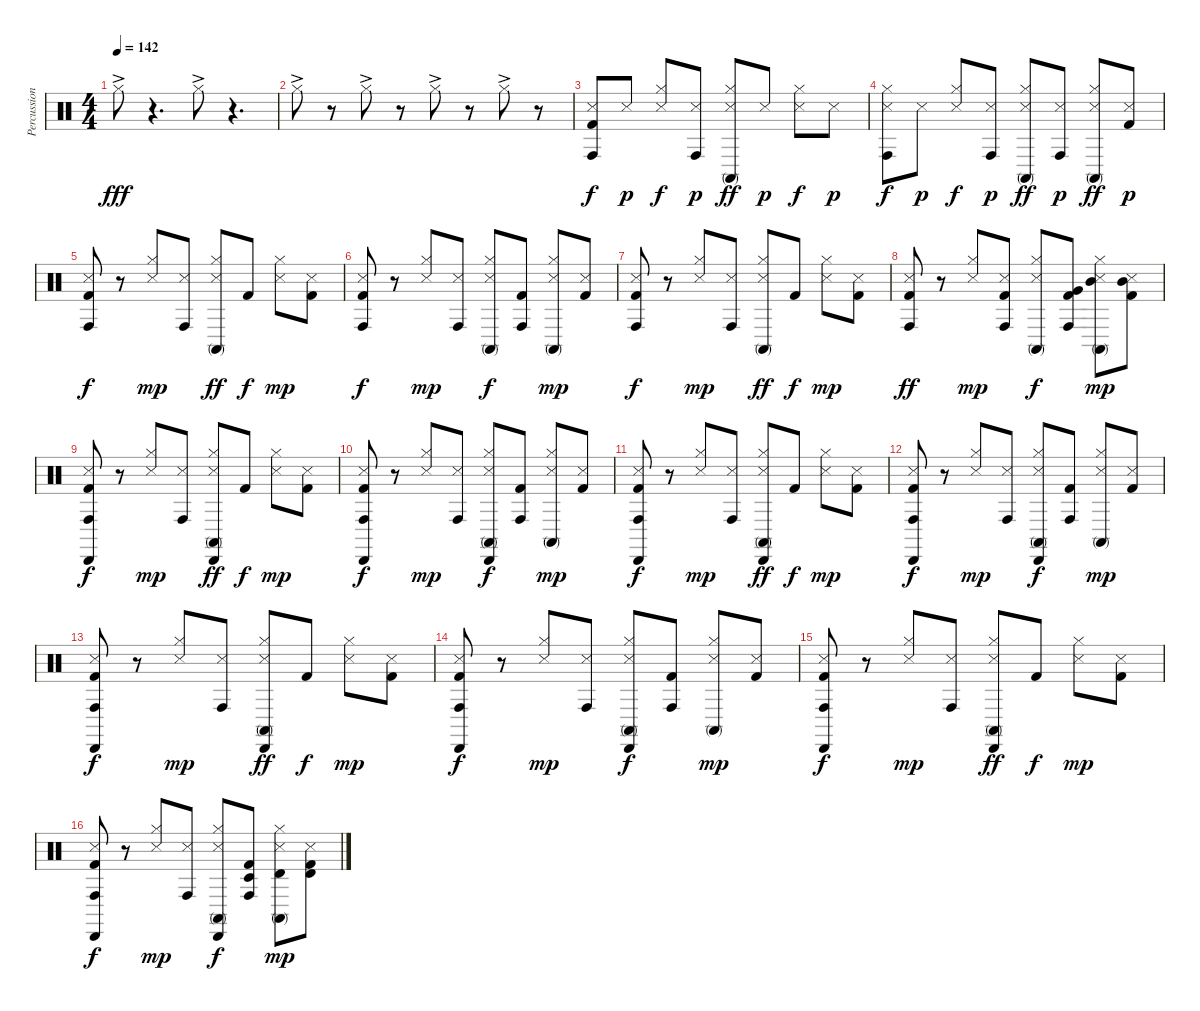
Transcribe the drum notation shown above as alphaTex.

\track ("Percussion" "Percussion") {instrument percussion}
\staff {score}
\articulation defaults
\ts (4 4)
\tempo 142
\clef neutral
\ks c "Hi-Hat (closed)"{ac}.8{dy fff}
r.4{d} "Hi-Hat (closed)"{ac}.8 r.4{d} |
"Hi-Hat (closed)"{ac}.8 r.8 "Hi-Hat (closed)"{ac}.8 r.8 "Hi-Hat (closed)"{ac}.8 r.8 "Hi-Hat (closed)"{ac}.8 r.8 |
("Conga high (hit)" "Snare (side stick) 3" "Kick (hit) 2").8{dy f} "Snare (side stick) 3".8{dy p} ("Hi-Hat (closed)" "Snare (side stick) 3").8{dy f} ("Conga high (hit)" "Snare (side stick) 3").8{dy p} ("Conga high (mute)" "Hi-Hat (closed)" "Snare (side stick) 3").8{dy ff} "Snare (side stick) 3".8{dy p} ("Hi-Hat (closed)" "Snare (side stick) 3").8{dy f} "Snare (side stick) 3".8{dy p} |
("Conga high (hit)" "Hi-Hat (closed)" "Snare (side stick) 3").8{dy f} "Snare (side stick) 3".8{dy p} ("Hi-Hat (closed)" "Snare (side stick) 3").8{dy f} ("Conga high (hit)" "Snare (side stick) 3").8{dy p} ("Conga high (mute)" "Hi-Hat (closed)" "Snare (side stick) 3").8{dy ff} ("Conga high (hit)" "Snare (side stick) 3").8{dy p} ("Conga high (mute)" "Hi-Hat (closed)" "Snare (side stick) 3").8{dy ff} ("Snare (side stick) 3" "Kick (hit) 2").8{dy p} |
("Conga high (hit)" "Snare (side stick) 3" "Kick (hit) 2").8{dy f} r.8 ("Hi-Hat (closed)" "Snare (side stick) 3").8{dy mp} ("Conga high (hit)" "Snare (side stick) 3").8 ("Conga high (mute)" "Hi-Hat (closed)" "Snare (side stick) 3").8{dy ff} "Kick (hit) 2".8{dy f} ("Hi-Hat (closed)" "Snare (side stick) 3").8{dy mp} ("Snare (side stick) 3" "Kick (hit) 2").8 |
("Conga high (hit)" "Snare (side stick) 3" "Kick (hit) 2").8{dy f} r.8 ("Hi-Hat (closed)" "Snare (side stick) 3").8{dy mp} ("Conga high (hit)" "Snare (side stick) 3").8 ("Conga high (mute)" "Hi-Hat (closed)" "Snare (side stick) 3").8{dy f} ("Conga high (hit)" "Kick (hit) 2").8 ("Conga high (mute)" "Hi-Hat (closed)" "Snare (side stick) 3").8{dy mp} ("Snare (side stick) 3" "Kick (hit) 2").8 |
("Conga high (hit)" "Snare (side stick) 3" "Kick (hit) 2").8{dy f} r.8 ("Hi-Hat (closed)" "Snare (side stick) 3").8{dy mp} ("Conga high (hit)" "Snare (side stick) 3").8 ("Conga high (mute)" "Hi-Hat (closed)" "Snare (side stick) 3").8{dy ff} "Kick (hit) 2".8{dy f} ("Hi-Hat (closed)" "Snare (side stick) 3").8{dy mp} ("Snare (side stick) 3" "Kick (hit) 2").8 |
("Conga high (hit)" "Snare (side stick) 3" "Kick (hit) 2").8{dy ff} r.8 ("Hi-Hat (closed)" "Snare (side stick) 3").8{dy mp} ("Conga high (hit)" "Snare (side stick) 3" "Kick (hit) 2").8 ("Conga high (mute)" "Hi-Hat (closed)" "Snare (side stick) 3").8{dy f} ("Conga high (hit)" "Very Low Tom (hit)" "Kick (hit) 2").8 ("Conga high (mute)" "Mid Tom (hit)" "Hi-Hat (closed)" "Snare (side stick) 3").8{dy mp} ("Mid Tom (hit)" "Snare (side stick) 3" "Kick (hit) 2").8 |
("Conga high (hit)" "Cabasa (hit)" "Snare (side stick) 3" "Kick (hit) 2").8{dy f} r.8 ("Hi-Hat (closed)" "Snare (side stick) 3").8{dy mp} ("Conga high (hit)" "Snare (side stick) 3").8 ("Conga high (mute)" "Cabasa (hit)" "Hi-Hat (closed)" "Snare (side stick) 3").8{dy ff} "Kick (hit) 2".8{dy f} ("Hi-Hat (closed)" "Snare (side stick) 3").8{dy mp} ("Snare (side stick) 3" "Kick (hit) 2").8 |
("Conga high (hit)" "Cabasa (hit)" "Snare (side stick) 3" "Kick (hit) 2").8{dy f} r.8 ("Hi-Hat (closed)" "Snare (side stick) 3").8{dy mp} ("Conga high (hit)" "Snare (side stick) 3").8 ("Conga high (mute)" "Cabasa (hit)" "Hi-Hat (closed)" "Snare (side stick) 3").8{dy f} ("Conga high (hit)" "Kick (hit) 2").8 ("Conga high (mute)" "Hi-Hat (closed)" "Snare (side stick) 3").8{dy mp} ("Snare (side stick) 3" "Kick (hit) 2").8 |
("Conga high (hit)" "Cabasa (hit)" "Snare (side stick) 3" "Kick (hit) 2").8{dy f} r.8 ("Hi-Hat (closed)" "Snare (side stick) 3").8{dy mp} ("Conga high (hit)" "Snare (side stick) 3").8 ("Conga high (mute)" "Cabasa (hit)" "Hi-Hat (closed)" "Snare (side stick) 3").8{dy ff} "Kick (hit) 2".8{dy f} ("Hi-Hat (closed)" "Snare (side stick) 3").8{dy mp} ("Snare (side stick) 3" "Kick (hit) 2").8 |
("Conga high (hit)" "Cabasa (hit)" "Snare (side stick) 3" "Kick (hit) 2").8{dy f} r.8 ("Hi-Hat (closed)" "Snare (side stick) 3").8{dy mp} ("Conga high (hit)" "Snare (side stick) 3").8 ("Conga high (mute)" "Cabasa (hit)" "Hi-Hat (closed)" "Snare (side stick) 3").8{dy f} ("Conga high (hit)" "Kick (hit) 2").8 ("Conga high (mute)" "Hi-Hat (closed)" "Snare (side stick) 3").8{dy mp} ("Snare (side stick) 3" "Kick (hit) 2").8 |
("Conga high (hit)" "Cabasa (hit)" "Snare (side stick) 3" "Kick (hit) 2").8{dy f} r.8 ("Hi-Hat (closed)" "Snare (side stick) 3").8{dy mp} ("Conga high (hit)" "Snare (side stick) 3").8 ("Conga high (mute)" "Cabasa (hit)" "Hi-Hat (closed)" "Snare (side stick) 3").8{dy ff} "Kick (hit) 2".8{dy f} ("Hi-Hat (closed)" "Snare (side stick) 3").8{dy mp} ("Snare (side stick) 3" "Kick (hit) 2").8 |
("Conga high (hit)" "Cabasa (hit)" "Snare (side stick) 3" "Kick (hit) 2").8{dy f} r.8 ("Hi-Hat (closed)" "Snare (side stick) 3").8{dy mp} ("Conga high (hit)" "Snare (side stick) 3").8 ("Conga high (mute)" "Cabasa (hit)" "Hi-Hat (closed)" "Snare (side stick) 3").8{dy f} ("Conga high (hit)" "Kick (hit) 2").8 ("Conga high (mute)" "Hi-Hat (closed)" "Snare (side stick) 3").8{dy mp} ("Snare (side stick) 3" "Kick (hit) 2").8 |
("Conga high (hit)" "Cabasa (hit)" "Snare (side stick) 3" "Kick (hit) 2").8{dy f} r.8 ("Hi-Hat (closed)" "Snare (side stick) 3").8{dy mp} ("Conga high (hit)" "Snare (side stick) 3").8 ("Conga high (mute)" "Cabasa (hit)" "Hi-Hat (closed)" "Snare (side stick) 3").8{dy ff} "Kick (hit) 2".8{dy f} ("Hi-Hat (closed)" "Snare (side stick) 3").8{dy mp} ("Snare (side stick) 3" "Kick (hit) 2").8 |
("Conga high (hit)" "Cabasa (hit)" "Snare (side stick) 3" "Kick (hit) 2").8{dy f} r.8 ("Hi-Hat (closed)" "Snare (side stick) 3").8{dy mp} ("Conga high (hit)" "Snare (side stick) 3").8 ("Conga high (mute)" "Cabasa (hit)" "Hi-Hat (closed)" "Snare (side stick) 3").8{dy f} ("Timbale low (hit)" "Conga high (hit)" "Kick (hit) 2").8 ("Timbale high (hit)" "Conga high (mute)" "Hi-Hat (closed)" "Snare (side stick) 3").8{dy mp} ("Timbale high (hit)" "Snare (side stick) 3" "Kick (hit) 2").8
